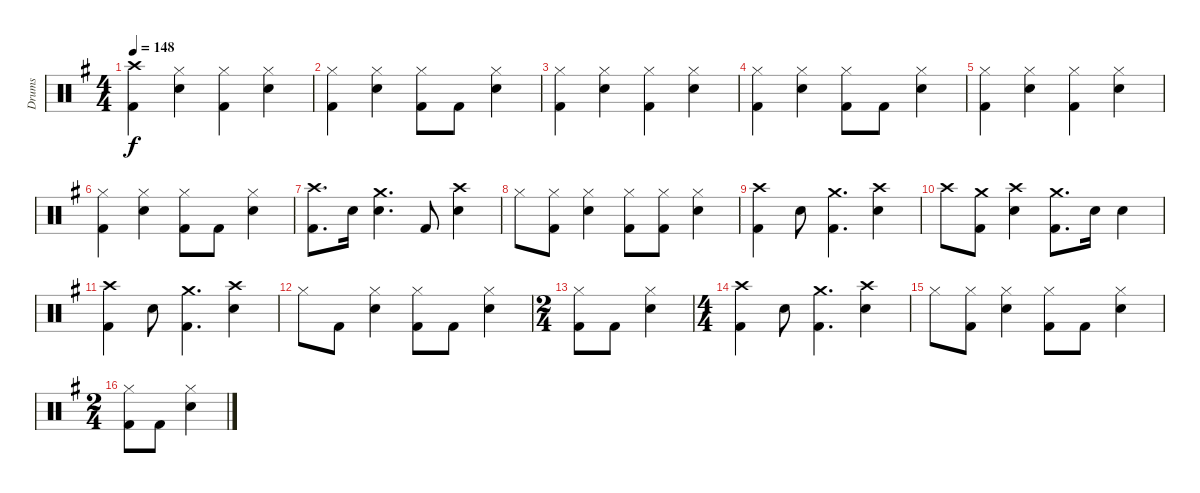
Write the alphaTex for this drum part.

\track ("Drums" "Drums") {instrument percussion}
\staff {score}
\articulation defaults
\ts (4 4)
\tempo 148
\clef neutral
\ks eminor
("Kick (hit) 2" "Crash high (hit)").4{dy f} ("Snare (hit) 2" "Hi-Hat (closed)").4 ("Kick (hit) 2" "Hi-Hat (closed)").4 ("Snare (hit) 2" "Hi-Hat (closed)").4 |
("Kick (hit) 2" "Hi-Hat (closed)").4 ("Snare (hit) 2" "Hi-Hat (closed)").4 ("Kick (hit) 2" "Hi-Hat (closed)").8 "Kick (hit) 2".8 ("Snare (hit) 2" "Hi-Hat (closed)").4 |
("Kick (hit) 2" "Hi-Hat (closed)").4 ("Snare (hit) 2" "Hi-Hat (closed)").4 ("Kick (hit) 2" "Hi-Hat (closed)").4 ("Snare (hit) 2" "Hi-Hat (closed)").4 |
("Kick (hit) 2" "Hi-Hat (closed)").4 ("Snare (hit) 2" "Hi-Hat (closed)").4 ("Kick (hit) 2" "Hi-Hat (closed)").8 "Kick (hit) 2".8 ("Snare (hit) 2" "Hi-Hat (closed)").4 |
("Kick (hit) 2" "Hi-Hat (closed)").4 ("Snare (hit) 2" "Hi-Hat (closed)").4 ("Kick (hit) 2" "Hi-Hat (closed)").4 ("Snare (hit) 2" "Hi-Hat (closed)").4 |
("Kick (hit) 2" "Hi-Hat (closed)").4 ("Snare (hit) 2" "Hi-Hat (closed)").4 ("Kick (hit) 2" "Hi-Hat (closed)").8 "Kick (hit) 2".8 ("Snare (hit) 2" "Hi-Hat (closed)").4 |
("Kick (hit) 2" "Crash high (hit)").8{d} "Snare (hit) 2".16 ("Snare (hit) 2" "Crash medium (hit)").4{d} "Kick (hit) 2".8 ("Snare (hit) 2" "Crash high (hit)").4 |
"Hi-Hat (closed)".8 ("Kick (hit) 2" "Hi-Hat (closed)").8 ("Snare (hit) 2" "Hi-Hat (closed)").4 ("Kick (hit) 2" "Hi-Hat (closed)").8 ("Kick (hit) 2" "Hi-Hat (closed)").8 ("Snare (hit) 2" "Hi-Hat (closed)").4 |
("Kick (hit) 2" "Crash high (hit)").4 "Snare (hit) 2".8 ("Kick (hit) 2" "Crash medium (hit)").4{d} ("Snare (hit) 2" "Crash high (hit)").4 |
"Crash high (hit)".8 ("Kick (hit) 2" "Crash medium (hit)").8 ("Snare (hit) 2" "Crash high (hit)").4 ("Kick (hit) 2" "Crash medium (hit)").8{d} "Snare (hit) 2".16 "Snare (hit) 2".4 |
("Kick (hit) 2" "Crash high (hit)").4 "Snare (hit) 2".8 ("Kick (hit) 2" "Crash medium (hit)").4{d} ("Snare (hit) 2" "Crash high (hit)").4 |
"Hi-Hat (closed)".8 "Kick (hit) 2".8 ("Snare (hit) 2" "Hi-Hat (closed)").4 ("Kick (hit) 2" "Hi-Hat (closed)").8 "Kick (hit) 2".8 ("Snare (hit) 2" "Hi-Hat (closed)").4 |
\ts (2 4)
("Kick (hit) 2" "Hi-Hat (closed)").8 "Kick (hit) 2".8 ("Snare (hit) 2" "Hi-Hat (closed)").4 |
\ts (4 4)
("Kick (hit) 2" "Crash high (hit)").4 "Snare (hit) 2".8 ("Kick (hit) 2" "Crash medium (hit)").4{d} ("Snare (hit) 2" "Crash high (hit)").4 |
"Hi-Hat (closed)".8 ("Kick (hit) 2" "Hi-Hat (closed)").8 ("Snare (hit) 2" "Hi-Hat (closed)").4 ("Kick (hit) 2" "Hi-Hat (closed)").8 "Kick (hit) 2".8 ("Snare (hit) 2" "Hi-Hat (closed)").4 |
\ts (2 4)
("Kick (hit) 2" "Hi-Hat (closed)").8 "Kick (hit) 2".8 ("Snare (hit) 2" "Hi-Hat (closed)").4
